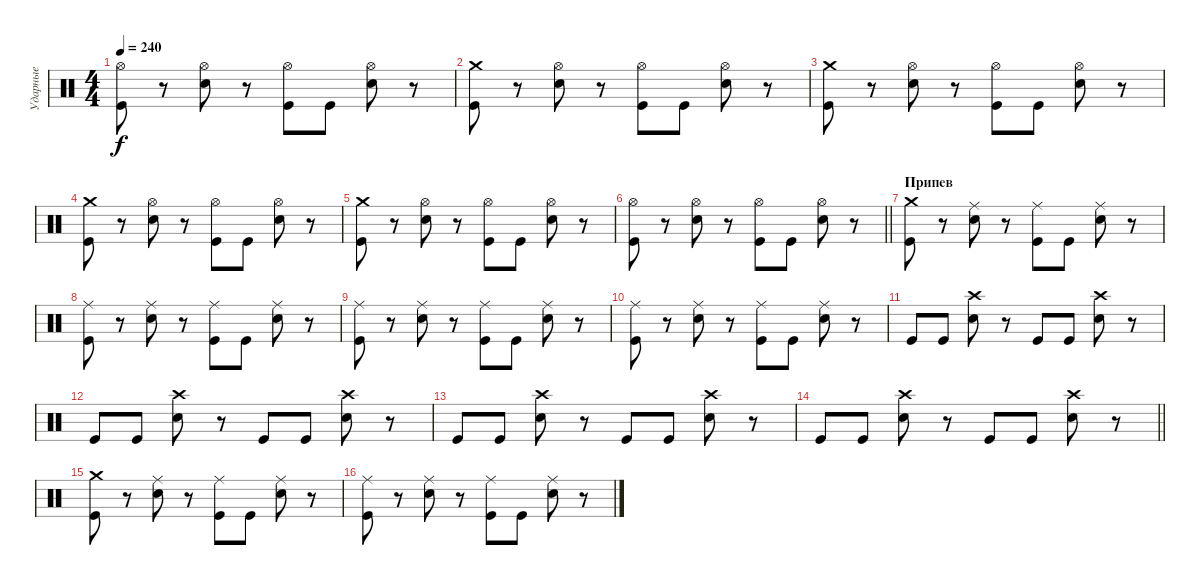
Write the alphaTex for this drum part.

\track ("Ударные" "Ударные") {instrument percussion}
\staff {score}
\articulation defaults
\ts (4 4)
\tempo 240
\clef neutral
\ks c
("Hi-Hat (open)" "Kick (hit)").8{dy f} r.8 ("Hi-Hat (open)" "Electric Snare (hit)").8 r.8 ("Hi-Hat (open)" "Kick (hit)").8 "Kick (hit)".8 ("Hi-Hat (open)" "Electric Snare (hit)").8 r.8 |
("Crash medium (hit)" "Kick (hit)").8 r.8 ("Hi-Hat (open)" "Electric Snare (hit)").8 r.8 ("Hi-Hat (open)" "Kick (hit)").8 "Kick (hit)".8 ("Hi-Hat (open)" "Electric Snare (hit)").8 r.8 |
("Crash medium (hit)" "Kick (hit)").8 r.8 ("Hi-Hat (open)" "Electric Snare (hit)").8 r.8 ("Hi-Hat (open)" "Kick (hit)").8 "Kick (hit)".8 ("Hi-Hat (open)" "Electric Snare (hit)").8 r.8 |
("Crash medium (hit)" "Kick (hit)").8 r.8 ("Hi-Hat (open)" "Electric Snare (hit)").8 r.8 ("Hi-Hat (open)" "Kick (hit)").8 "Kick (hit)".8 ("Hi-Hat (open)" "Electric Snare (hit)").8 r.8 |
("Crash medium (hit)" "Kick (hit)").8 r.8 ("Hi-Hat (open)" "Electric Snare (hit)").8 r.8 ("Hi-Hat (open)" "Kick (hit)").8 "Kick (hit)".8 ("Hi-Hat (open)" "Electric Snare (hit)").8 r.8 |
\barLineRight lightlight
("Hi-Hat (open)" "Kick (hit)").8 r.8 ("Hi-Hat (open)" "Electric Snare (hit)").8 r.8 ("Hi-Hat (open)" "Kick (hit)").8 "Kick (hit)".8 ("Hi-Hat (open)" "Electric Snare (hit)").8 r.8 |
\section ("" "Припев")
("Crash medium (hit)" "Kick (hit)").8 r.8 ("Ride (middle)" "Electric Snare (hit)").8 r.8 ("Ride (middle)" "Kick (hit)").8 "Kick (hit)".8 ("Ride (middle)" "Electric Snare (hit)").8 r.8 |
("Ride (middle)" "Kick (hit)").8 r.8 ("Ride (middle)" "Electric Snare (hit)").8 r.8 ("Ride (middle)" "Kick (hit)").8 "Kick (hit)".8 ("Ride (middle)" "Electric Snare (hit)").8 r.8 |
("Ride (middle)" "Kick (hit)").8 r.8 ("Ride (middle)" "Electric Snare (hit)").8 r.8 ("Ride (middle)" "Kick (hit)").8 "Kick (hit)".8 ("Ride (middle)" "Electric Snare (hit)").8 r.8 |
("Ride (middle)" "Kick (hit)").8 r.8 ("Ride (middle)" "Electric Snare (hit)").8 r.8 ("Ride (middle)" "Kick (hit)").8 "Kick (hit)".8 ("Ride (middle)" "Electric Snare (hit)").8 r.8 |
"Kick (hit)".8 "Kick (hit)".8 ("Crash high (hit)" "Electric Snare (hit)").8 r.8 "Kick (hit)".8 "Kick (hit)".8 ("Crash high (hit)" "Electric Snare (hit)").8 r.8 |
"Kick (hit)".8 "Kick (hit)".8 ("Crash high (hit)" "Electric Snare (hit)").8 r.8 "Kick (hit)".8 "Kick (hit)".8 ("Crash high (hit)" "Electric Snare (hit)").8 r.8 |
"Kick (hit)".8 "Kick (hit)".8 ("Crash high (hit)" "Electric Snare (hit)").8 r.8 "Kick (hit)".8 "Kick (hit)".8 ("Crash high (hit)" "Electric Snare (hit)").8 r.8 |
\barLineRight lightlight "Kick (hit)".8 "Kick (hit)".8
("Crash high (hit)" "Electric Snare (hit)").8 r.8 "Kick (hit)".8 "Kick (hit)".8 ("Crash high (hit)" "Electric Snare (hit)").8 r.8 |
\section ("" " ")
("Crash medium (hit)" "Kick (hit)").8 r.8 ("Ride (middle)" "Electric Snare (hit)").8 r.8 ("Ride (middle)" "Kick (hit)").8 "Kick (hit)".8 ("Ride (middle)" "Electric Snare (hit)").8 r.8 |
("Ride (middle)" "Kick (hit)").8 r.8 ("Ride (middle)" "Electric Snare (hit)").8 r.8 ("Ride (middle)" "Kick (hit)").8 "Kick (hit)".8 ("Ride (middle)" "Electric Snare (hit)").8 r.8
